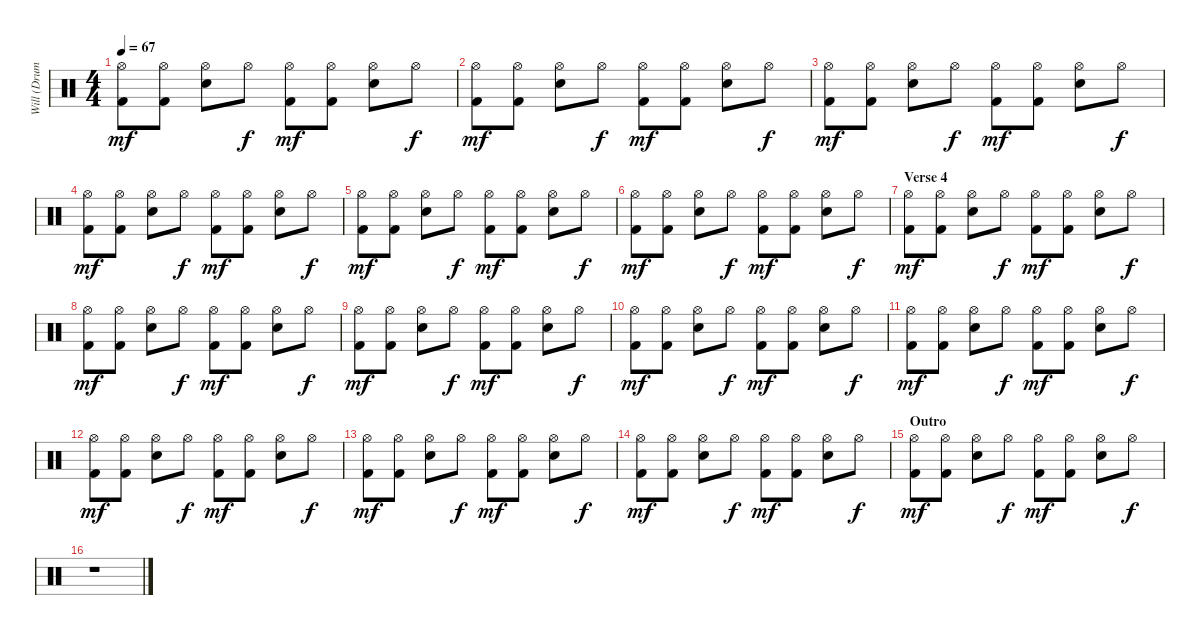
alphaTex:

\track ("Will (Drums)" "Will (Drum") {instrument percussion}
\staff {score}
\articulation defaults
\ts (4 4)
\tempo 67
\clef neutral
\ks c
("Kick (hit) 2" "Hi-Hat (open)").8{dy mf} ("Kick (hit) 2" "Hi-Hat (open)").8 ("Snare (hit) 2" "Hi-Hat (open)").8 "Hi-Hat (open)".8{dy f} ("Kick (hit) 2" "Hi-Hat (open)").8{dy mf} ("Kick (hit) 2" "Hi-Hat (open)").8 ("Snare (hit) 2" "Hi-Hat (open)").8 "Hi-Hat (open)".8{dy f} |
("Kick (hit) 2" "Hi-Hat (open)").8{dy mf} ("Kick (hit) 2" "Hi-Hat (open)").8 ("Snare (hit) 2" "Hi-Hat (open)").8 "Hi-Hat (open)".8{dy f} ("Kick (hit) 2" "Hi-Hat (open)").8{dy mf} ("Kick (hit) 2" "Hi-Hat (open)").8 ("Snare (hit) 2" "Hi-Hat (open)").8 "Hi-Hat (open)".8{dy f} |
("Kick (hit) 2" "Hi-Hat (open)").8{dy mf} ("Kick (hit) 2" "Hi-Hat (open)").8 ("Snare (hit) 2" "Hi-Hat (open)").8 "Hi-Hat (open)".8{dy f} ("Kick (hit) 2" "Hi-Hat (open)").8{dy mf} ("Kick (hit) 2" "Hi-Hat (open)").8 ("Snare (hit) 2" "Hi-Hat (open)").8 "Hi-Hat (open)".8{dy f} |
("Kick (hit) 2" "Hi-Hat (open)").8{dy mf} ("Kick (hit) 2" "Hi-Hat (open)").8 ("Snare (hit) 2" "Hi-Hat (open)").8 "Hi-Hat (open)".8{dy f} ("Kick (hit) 2" "Hi-Hat (open)").8{dy mf} ("Kick (hit) 2" "Hi-Hat (open)").8 ("Snare (hit) 2" "Hi-Hat (open)").8 "Hi-Hat (open)".8{dy f} |
("Kick (hit) 2" "Hi-Hat (open)").8{dy mf} ("Kick (hit) 2" "Hi-Hat (open)").8 ("Snare (hit) 2" "Hi-Hat (open)").8 "Hi-Hat (open)".8{dy f} ("Kick (hit) 2" "Hi-Hat (open)").8{dy mf} ("Kick (hit) 2" "Hi-Hat (open)").8 ("Snare (hit) 2" "Hi-Hat (open)").8 "Hi-Hat (open)".8{dy f} |
("Kick (hit) 2" "Hi-Hat (open)").8{dy mf} ("Kick (hit) 2" "Hi-Hat (open)").8 ("Snare (hit) 2" "Hi-Hat (open)").8 "Hi-Hat (open)".8{dy f} ("Kick (hit) 2" "Hi-Hat (open)").8{dy mf} ("Kick (hit) 2" "Hi-Hat (open)").8 ("Snare (hit) 2" "Hi-Hat (open)").8 "Hi-Hat (open)".8{dy f} |
\section ("" "Verse 4")
("Kick (hit) 2" "Hi-Hat (open)").8{dy mf} ("Kick (hit) 2" "Hi-Hat (open)").8 ("Snare (hit) 2" "Hi-Hat (open)").8 "Hi-Hat (open)".8{dy f} ("Kick (hit) 2" "Hi-Hat (open)").8{dy mf} ("Kick (hit) 2" "Hi-Hat (open)").8 ("Snare (hit) 2" "Hi-Hat (open)").8 "Hi-Hat (open)".8{dy f} |
("Kick (hit) 2" "Hi-Hat (open)").8{dy mf} ("Kick (hit) 2" "Hi-Hat (open)").8 ("Snare (hit) 2" "Hi-Hat (open)").8 "Hi-Hat (open)".8{dy f} ("Kick (hit) 2" "Hi-Hat (open)").8{dy mf} ("Kick (hit) 2" "Hi-Hat (open)").8 ("Snare (hit) 2" "Hi-Hat (open)").8 "Hi-Hat (open)".8{dy f} |
("Kick (hit) 2" "Hi-Hat (open)").8{dy mf} ("Kick (hit) 2" "Hi-Hat (open)").8 ("Snare (hit) 2" "Hi-Hat (open)").8 "Hi-Hat (open)".8{dy f} ("Kick (hit) 2" "Hi-Hat (open)").8{dy mf} ("Kick (hit) 2" "Hi-Hat (open)").8 ("Snare (hit) 2" "Hi-Hat (open)").8 "Hi-Hat (open)".8{dy f} |
("Kick (hit) 2" "Hi-Hat (open)").8{dy mf} ("Kick (hit) 2" "Hi-Hat (open)").8 ("Snare (hit) 2" "Hi-Hat (open)").8 "Hi-Hat (open)".8{dy f} ("Kick (hit) 2" "Hi-Hat (open)").8{dy mf} ("Kick (hit) 2" "Hi-Hat (open)").8 ("Snare (hit) 2" "Hi-Hat (open)").8 "Hi-Hat (open)".8{dy f} |
("Kick (hit) 2" "Hi-Hat (open)").8{dy mf} ("Kick (hit) 2" "Hi-Hat (open)").8 ("Snare (hit) 2" "Hi-Hat (open)").8 "Hi-Hat (open)".8{dy f} ("Kick (hit) 2" "Hi-Hat (open)").8{dy mf} ("Kick (hit) 2" "Hi-Hat (open)").8 ("Snare (hit) 2" "Hi-Hat (open)").8 "Hi-Hat (open)".8{dy f} |
("Kick (hit) 2" "Hi-Hat (open)").8{dy mf} ("Kick (hit) 2" "Hi-Hat (open)").8 ("Snare (hit) 2" "Hi-Hat (open)").8 "Hi-Hat (open)".8{dy f} ("Kick (hit) 2" "Hi-Hat (open)").8{dy mf} ("Kick (hit) 2" "Hi-Hat (open)").8 ("Snare (hit) 2" "Hi-Hat (open)").8 "Hi-Hat (open)".8{dy f} |
("Kick (hit) 2" "Hi-Hat (open)").8{dy mf} ("Kick (hit) 2" "Hi-Hat (open)").8 ("Snare (hit) 2" "Hi-Hat (open)").8 "Hi-Hat (open)".8{dy f} ("Kick (hit) 2" "Hi-Hat (open)").8{dy mf} ("Kick (hit) 2" "Hi-Hat (open)").8 ("Snare (hit) 2" "Hi-Hat (open)").8 "Hi-Hat (open)".8{dy f} |
("Kick (hit) 2" "Hi-Hat (open)").8{dy mf} ("Kick (hit) 2" "Hi-Hat (open)").8 ("Snare (hit) 2" "Hi-Hat (open)").8 "Hi-Hat (open)".8{dy f} ("Kick (hit) 2" "Hi-Hat (open)").8{dy mf} ("Kick (hit) 2" "Hi-Hat (open)").8 ("Snare (hit) 2" "Hi-Hat (open)").8 "Hi-Hat (open)".8{dy f} |
\section ("" "Outro")
("Kick (hit) 2" "Hi-Hat (open)").8{dy mf volume 0} ("Kick (hit) 2" "Hi-Hat (open)").8 ("Snare (hit) 2" "Hi-Hat (open)").8 "Hi-Hat (open)".8{dy f} ("Kick (hit) 2" "Hi-Hat (open)").8{dy mf} ("Kick (hit) 2" "Hi-Hat (open)").8 ("Snare (hit) 2" "Hi-Hat (open)").8 "Hi-Hat (open)".8{dy f} |
r.1
